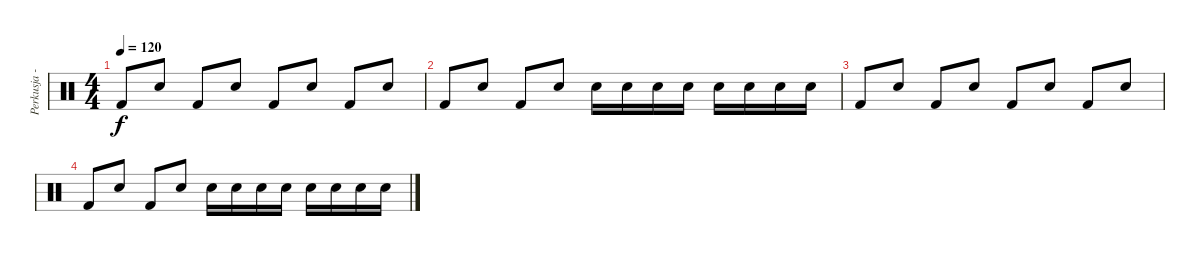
\track ("Perkusja - Mielony" "Perkusja -") {instrument percussion}
\staff {score}
\articulation defaults
\ts (4 4)
\tempo 120
\clef neutral
\ks c "Kick (hit) 2".8{dy f} "Snare (hit) 2".8 "Kick (hit) 2".8 "Snare (hit) 2".8 "Kick (hit) 2".8 "Snare (hit) 2".8 "Kick (hit) 2".8 "Snare (hit) 2".8
|
"Kick (hit) 2".8 "Snare (hit) 2".8 "Kick (hit) 2".8 "Snare (hit) 2".8 "Snare (hit) 2".16 "Snare (hit) 2".16 "Snare (hit) 2".16 "Snare (hit) 2".16 "Snare (hit) 2".16 "Snare (hit) 2".16 "Snare (hit) 2".16 "Snare (hit) 2".16 |
"Kick (hit) 2".8 "Snare (hit) 2".8 "Kick (hit) 2".8 "Snare (hit) 2".8 "Kick (hit) 2".8 "Snare (hit) 2".8 "Kick (hit) 2".8 "Snare (hit) 2".8 |
"Kick (hit) 2".8 "Snare (hit) 2".8 "Kick (hit) 2".8 "Snare (hit) 2".8 "Snare (hit) 2".16 "Snare (hit) 2".16 "Snare (hit) 2".16 "Snare (hit) 2".16 "Snare (hit) 2".16 "Snare (hit) 2".16 "Snare (hit) 2".16 "Snare (hit) 2".16
